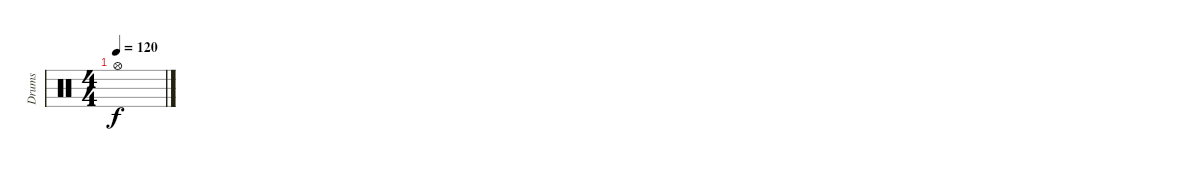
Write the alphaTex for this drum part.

\track ("Drums" "Drums") {instrument percussion}
\staff {score}
\articulation defaults
\ts (4 4)
\tempo 120
\clef neutral
\ks c "Hi-Hat (open)".1{dy f}
